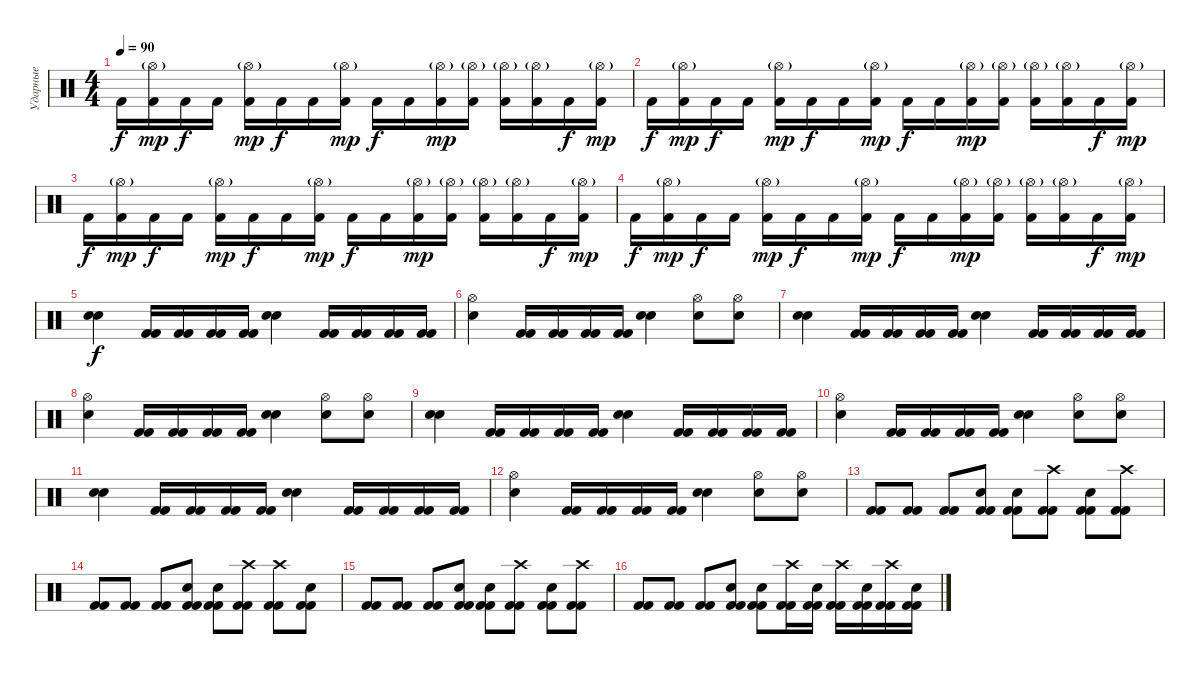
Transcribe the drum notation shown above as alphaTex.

\track ("Ударные" "Ударные") {instrument percussion}
\staff {score}
\articulation defaults
\ts (4 4)
\tempo 90
\clef neutral
\ks c "Kick (hit) 2".16{dy f}
("Hi-Hat (open)"{g} "Kick (hit) 2").16{dy mp} "Kick (hit) 2".16{dy f} "Kick (hit) 2".16 ("Hi-Hat (open)"{g} "Kick (hit) 2").16{dy mp} "Kick (hit) 2".16{dy f} "Kick (hit) 2".16 ("Hi-Hat (open)"{g} "Kick (hit) 2").16{dy mp} "Kick (hit) 2".16{dy f} "Kick (hit) 2".16 ("Hi-Hat (open)"{g} "Kick (hit) 2").16{dy mp} ("Hi-Hat (open)"{g} "Kick (hit) 2").16 ("Hi-Hat (open)"{g} "Kick (hit) 2").16 ("Hi-Hat (open)"{g} "Kick (hit) 2").16 "Kick (hit) 2".16{dy f} ("Hi-Hat (open)"{g} "Kick (hit) 2").16{dy mp} |
"Kick (hit) 2".16{dy f} ("Hi-Hat (open)"{g} "Kick (hit) 2").16{dy mp} "Kick (hit) 2".16{dy f} "Kick (hit) 2".16 ("Hi-Hat (open)"{g} "Kick (hit) 2").16{dy mp} "Kick (hit) 2".16{dy f} "Kick (hit) 2".16 ("Hi-Hat (open)"{g} "Kick (hit) 2").16{dy mp} "Kick (hit) 2".16{dy f} "Kick (hit) 2".16 ("Hi-Hat (open)"{g} "Kick (hit) 2").16{dy mp} ("Hi-Hat (open)"{g} "Kick (hit) 2").16 ("Hi-Hat (open)"{g} "Kick (hit) 2").16 ("Hi-Hat (open)"{g} "Kick (hit) 2").16 "Kick (hit) 2".16{dy f} ("Hi-Hat (open)"{g} "Kick (hit) 2").16{dy mp} |
"Kick (hit) 2".16{dy f} ("Hi-Hat (open)"{g} "Kick (hit) 2").16{dy mp} "Kick (hit) 2".16{dy f} "Kick (hit) 2".16 ("Hi-Hat (open)"{g} "Kick (hit) 2").16{dy mp} "Kick (hit) 2".16{dy f} "Kick (hit) 2".16 ("Hi-Hat (open)"{g} "Kick (hit) 2").16{dy mp} "Kick (hit) 2".16{dy f} "Kick (hit) 2".16 ("Hi-Hat (open)"{g} "Kick (hit) 2").16{dy mp} ("Hi-Hat (open)"{g} "Kick (hit) 2").16 ("Hi-Hat (open)"{g} "Kick (hit) 2").16 ("Hi-Hat (open)"{g} "Kick (hit) 2").16 "Kick (hit) 2".16{dy f} ("Hi-Hat (open)"{g} "Kick (hit) 2").16{dy mp} |
"Kick (hit) 2".16{dy f} ("Hi-Hat (open)"{g} "Kick (hit) 2").16{dy mp} "Kick (hit) 2".16{dy f} "Kick (hit) 2".16 ("Hi-Hat (open)"{g} "Kick (hit) 2").16{dy mp} "Kick (hit) 2".16{dy f} "Kick (hit) 2".16 ("Hi-Hat (open)"{g} "Kick (hit) 2").16{dy mp} "Kick (hit) 2".16{dy f} "Kick (hit) 2".16 ("Hi-Hat (open)"{g} "Kick (hit) 2").16{dy mp} ("Hi-Hat (open)"{g} "Kick (hit) 2").16 ("Hi-Hat (open)"{g} "Kick (hit) 2").16 ("Hi-Hat (open)"{g} "Kick (hit) 2").16 "Kick (hit) 2".16{dy f} ("Hi-Hat (open)"{g} "Kick (hit) 2").16{dy mp} |
("Electric Snare (hit)" "Electric Snare (hit)").4{dy f} ("Kick (hit) 2" "Kick (hit) 2").16 ("Kick (hit) 2" "Kick (hit) 2").16 ("Kick (hit) 2" "Kick (hit) 2").16 ("Kick (hit) 2" "Kick (hit) 2").16 ("Electric Snare (hit)" "Electric Snare (hit)").4 ("Kick (hit) 2" "Kick (hit) 2").16 ("Kick (hit) 2" "Kick (hit) 2").16 ("Kick (hit) 2" "Kick (hit) 2").16 ("Kick (hit) 2" "Kick (hit) 2").16 |
("Hi-Hat (open)" "Electric Snare (hit)").4 ("Kick (hit) 2" "Kick (hit) 2").16 ("Kick (hit) 2" "Kick (hit) 2").16 ("Kick (hit) 2" "Kick (hit) 2").16 ("Kick (hit) 2" "Kick (hit) 2").16 ("Electric Snare (hit)" "Electric Snare (hit)").4 ("Electric Snare (hit)" "Hi-Hat (open)").8 ("Electric Snare (hit)" "Hi-Hat (open)").8 |
("Electric Snare (hit)" "Electric Snare (hit)").4 ("Kick (hit) 2" "Kick (hit) 2").16 ("Kick (hit) 2" "Kick (hit) 2").16 ("Kick (hit) 2" "Kick (hit) 2").16 ("Kick (hit) 2" "Kick (hit) 2").16 ("Electric Snare (hit)" "Electric Snare (hit)").4 ("Kick (hit) 2" "Kick (hit) 2").16 ("Kick (hit) 2" "Kick (hit) 2").16 ("Kick (hit) 2" "Kick (hit) 2").16 ("Kick (hit) 2" "Kick (hit) 2").16 |
("Hi-Hat (open)" "Electric Snare (hit)").4 ("Kick (hit) 2" "Kick (hit) 2").16 ("Kick (hit) 2" "Kick (hit) 2").16 ("Kick (hit) 2" "Kick (hit) 2").16 ("Kick (hit) 2" "Kick (hit) 2").16 ("Electric Snare (hit)" "Electric Snare (hit)").4 ("Electric Snare (hit)" "Hi-Hat (open)").8 ("Electric Snare (hit)" "Hi-Hat (open)").8 |
("Electric Snare (hit)" "Electric Snare (hit)").4 ("Kick (hit) 2" "Kick (hit) 2").16 ("Kick (hit) 2" "Kick (hit) 2").16 ("Kick (hit) 2" "Kick (hit) 2").16 ("Kick (hit) 2" "Kick (hit) 2").16 ("Electric Snare (hit)" "Electric Snare (hit)").4 ("Kick (hit) 2" "Kick (hit) 2").16 ("Kick (hit) 2" "Kick (hit) 2").16 ("Kick (hit) 2" "Kick (hit) 2").16 ("Kick (hit) 2" "Kick (hit) 2").16 |
("Hi-Hat (open)" "Electric Snare (hit)").4 ("Kick (hit) 2" "Kick (hit) 2").16 ("Kick (hit) 2" "Kick (hit) 2").16 ("Kick (hit) 2" "Kick (hit) 2").16 ("Kick (hit) 2" "Kick (hit) 2").16 ("Electric Snare (hit)" "Electric Snare (hit)").4 ("Electric Snare (hit)" "Hi-Hat (open)").8 ("Electric Snare (hit)" "Hi-Hat (open)").8 |
("Electric Snare (hit)" "Electric Snare (hit)").4 ("Kick (hit) 2" "Kick (hit) 2").16 ("Kick (hit) 2" "Kick (hit) 2").16 ("Kick (hit) 2" "Kick (hit) 2").16 ("Kick (hit) 2" "Kick (hit) 2").16 ("Electric Snare (hit)" "Electric Snare (hit)").4 ("Kick (hit) 2" "Kick (hit) 2").16 ("Kick (hit) 2" "Kick (hit) 2").16 ("Kick (hit) 2" "Kick (hit) 2").16 ("Kick (hit) 2" "Kick (hit) 2").16 |
("Hi-Hat (open)" "Electric Snare (hit)").4 ("Kick (hit) 2" "Kick (hit) 2").16 ("Kick (hit) 2" "Kick (hit) 2").16 ("Kick (hit) 2" "Kick (hit) 2").16 ("Kick (hit) 2" "Kick (hit) 2").16 ("Electric Snare (hit)" "Electric Snare (hit)").4 ("Electric Snare (hit)" "Hi-Hat (open)").8 ("Electric Snare (hit)" "Hi-Hat (open)").8 |
("Kick (hit) 2" "Kick (hit) 2").8 ("Kick (hit) 2" "Kick (hit) 2").8 ("Kick (hit) 2" "Kick (hit) 2").8 ("Electric Snare (hit)" "Kick (hit) 2" "Kick (hit) 2").8 ("Electric Snare (hit)" "Kick (hit) 2" "Kick (hit) 2").8 ("Crash high (hit)" "Kick (hit) 2" "Kick (hit) 2").8 ("Electric Snare (hit)" "Kick (hit) 2" "Kick (hit) 2").8 ("Crash high (hit)" "Kick (hit) 2" "Kick (hit) 2").8 |
("Kick (hit) 2" "Kick (hit) 2").8 ("Kick (hit) 2" "Kick (hit) 2").8 ("Kick (hit) 2" "Kick (hit) 2").8 ("Electric Snare (hit)" "Kick (hit) 2" "Kick (hit) 2").8 ("Electric Snare (hit)" "Kick (hit) 2" "Kick (hit) 2").8 ("Crash high (hit)" "Kick (hit) 2" "Kick (hit) 2").8 ("Crash high (hit)" "Kick (hit) 2" "Kick (hit) 2").8 ("Electric Snare (hit)" "Kick (hit) 2" "Kick (hit) 2").8 |
("Kick (hit) 2" "Kick (hit) 2").8 ("Kick (hit) 2" "Kick (hit) 2").8 ("Kick (hit) 2" "Kick (hit) 2").8 ("Electric Snare (hit)" "Kick (hit) 2" "Kick (hit) 2").8 ("Electric Snare (hit)" "Kick (hit) 2" "Kick (hit) 2").8 ("Crash high (hit)" "Kick (hit) 2" "Kick (hit) 2").8 ("Electric Snare (hit)" "Kick (hit) 2" "Kick (hit) 2").8 ("Crash high (hit)" "Kick (hit) 2" "Kick (hit) 2").8 |
("Kick (hit) 2" "Kick (hit) 2").8 ("Kick (hit) 2" "Kick (hit) 2").8 ("Kick (hit) 2" "Kick (hit) 2").8 ("Electric Snare (hit)" "Kick (hit) 2" "Kick (hit) 2").8 ("Electric Snare (hit)" "Kick (hit) 2" "Kick (hit) 2").8 ("Crash high (hit)" "Kick (hit) 2" "Kick (hit) 2").16 ("Electric Snare (hit)" "Kick (hit) 2" "Kick (hit) 2").16 ("Crash high (hit)" "Kick (hit) 2" "Kick (hit) 2").16 ("Electric Snare (hit)" "Kick (hit) 2" "Kick (hit) 2").16 ("Crash high (hit)" "Kick (hit) 2" "Kick (hit) 2").16 ("Electric Snare (hit)" "Kick (hit) 2" "Kick (hit) 2").16
